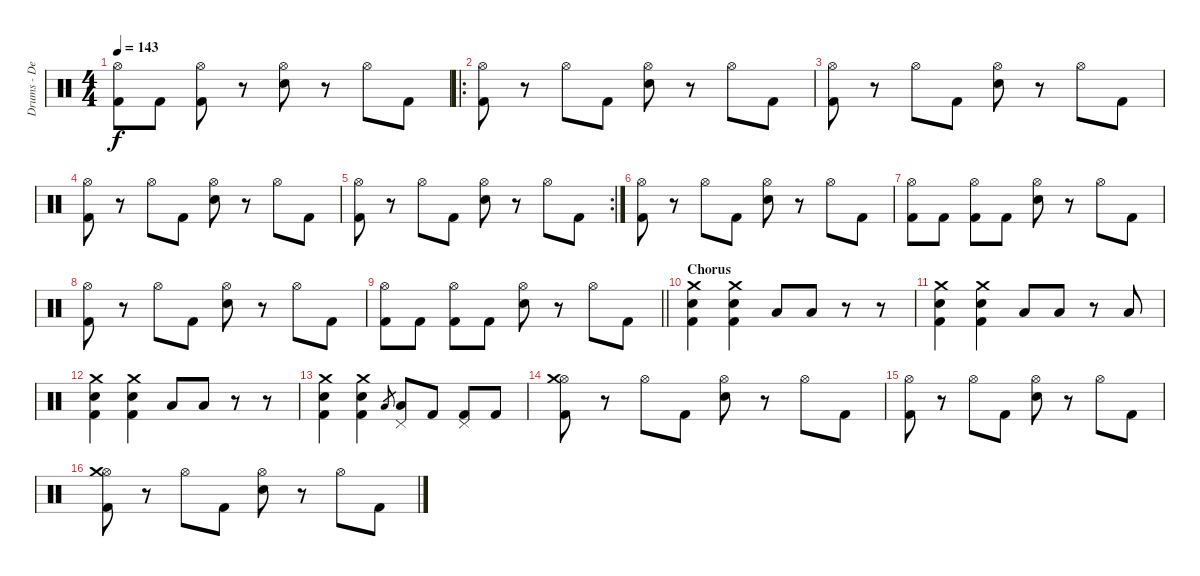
\track ("Drums - Dennis Poschwatta" "Drums - De") {instrument percussion}
\staff {score}
\articulation defaults
\ts (4 4)
\tempo 143
\clef neutral
\ks c
("Hi-Hat (open)" "Kick (hit) 2").8{dy f} "Kick (hit) 2".8 ("Hi-Hat (open)" "Kick (hit) 2").8 r.8 ("Hi-Hat (open)" "Electric Snare (hit)").8 r.8 "Hi-Hat (open)".8 "Kick (hit) 2".8 |
\ro
("Hi-Hat (open)" "Kick (hit) 2").8 r.8 "Hi-Hat (open)".8 "Kick (hit) 2".8 ("Hi-Hat (open)" "Electric Snare (hit)").8 r.8 "Hi-Hat (open)".8 "Kick (hit) 2".8 |
("Hi-Hat (open)" "Kick (hit) 2").8 r.8 "Hi-Hat (open)".8 "Kick (hit) 2".8 ("Hi-Hat (open)" "Electric Snare (hit)").8 r.8 "Hi-Hat (open)".8 "Kick (hit) 2".8 |
("Hi-Hat (open)" "Kick (hit) 2").8 r.8 "Hi-Hat (open)".8 "Kick (hit) 2".8 ("Hi-Hat (open)" "Electric Snare (hit)").8 r.8 "Hi-Hat (open)".8 "Kick (hit) 2".8 |
\rc 2
("Hi-Hat (open)" "Kick (hit) 2").8 r.8 "Hi-Hat (open)".8 "Kick (hit) 2".8 ("Hi-Hat (open)" "Electric Snare (hit)").8 r.8 "Hi-Hat (open)".8 "Kick (hit) 2".8 |
("Hi-Hat (open)" "Kick (hit) 2").8 r.8 "Hi-Hat (open)".8 "Kick (hit) 2".8 ("Hi-Hat (open)" "Electric Snare (hit)").8 r.8 "Hi-Hat (open)".8 "Kick (hit) 2".8 |
("Hi-Hat (open)" "Kick (hit) 2").8 "Kick (hit) 2".8 ("Hi-Hat (open)" "Kick (hit) 2").8 "Kick (hit) 2".8 ("Hi-Hat (open)" "Electric Snare (hit)").8 r.8 "Hi-Hat (open)".8 "Kick (hit) 2".8 |
("Hi-Hat (open)" "Kick (hit) 2").8 r.8 "Hi-Hat (open)".8 "Kick (hit) 2".8 ("Hi-Hat (open)" "Electric Snare (hit)").8 r.8 "Hi-Hat (open)".8 "Kick (hit) 2".8 |
\barLineRight lightlight
("Hi-Hat (open)" "Kick (hit) 2").8 "Kick (hit) 2".8 ("Hi-Hat (open)" "Kick (hit) 2").8 "Kick (hit) 2".8 ("Hi-Hat (open)" "Electric Snare (hit)").8 r.8 "Hi-Hat (open)".8 "Kick (hit) 2".8 |
\section ("" "Chorus")
("Crash medium (hit)" "Electric Snare (hit)" "Kick (hit) 2").4 ("Crash medium (hit)" "Electric Snare (hit)" "Kick (hit) 2").4 "Low Floor Tom (hit)".8 "Low Floor Tom (hit)".8 r.8 r.8 |
("Crash medium (hit)" "Electric Snare (hit)" "Kick (hit) 2").4 ("Crash medium (hit)" "Electric Snare (hit)" "Kick (hit) 2").4 "Low Floor Tom (hit)".8 "Low Floor Tom (hit)".8 r.8 "Low Floor Tom (hit)".8 |
("Crash medium (hit)" "Electric Snare (hit)" "Kick (hit) 2").4 ("Crash medium (hit)" "Electric Snare (hit)" "Kick (hit) 2").4 "Low Floor Tom (hit)".8 "Low Floor Tom (hit)".8 r.8 r.8 |
("Crash medium (hit)" "Electric Snare (hit)" "Kick (hit) 2").4 ("Crash medium (hit)" "Electric Snare (hit)" "Kick (hit) 2").4 "Low Floor Tom (hit)".8{gr} ("Pedal Hi-Hat (hit)" "Low Floor Tom (hit)").8 "Kick (hit) 2".8 ("Pedal Hi-Hat (hit)" "Kick (hit) 2").8 "Kick (hit) 2".8 |
("Hi-Hat (open)" "Crash medium (hit)" "Kick (hit) 2").8 r.8 "Hi-Hat (open)".8 "Kick (hit) 2".8 ("Hi-Hat (open)" "Electric Snare (hit)").8 r.8 "Hi-Hat (open)".8 "Kick (hit) 2".8 |
("Hi-Hat (open)" "Kick (hit) 2").8 r.8 "Hi-Hat (open)".8 "Kick (hit) 2".8 ("Hi-Hat (open)" "Electric Snare (hit)").8 r.8 "Hi-Hat (open)".8 "Kick (hit) 2".8 |
("Hi-Hat (open)" "Crash medium (hit)" "Kick (hit) 2").8 r.8 "Hi-Hat (open)".8 "Kick (hit) 2".8 ("Hi-Hat (open)" "Electric Snare (hit)").8 r.8 "Hi-Hat (open)".8 "Kick (hit) 2".8
